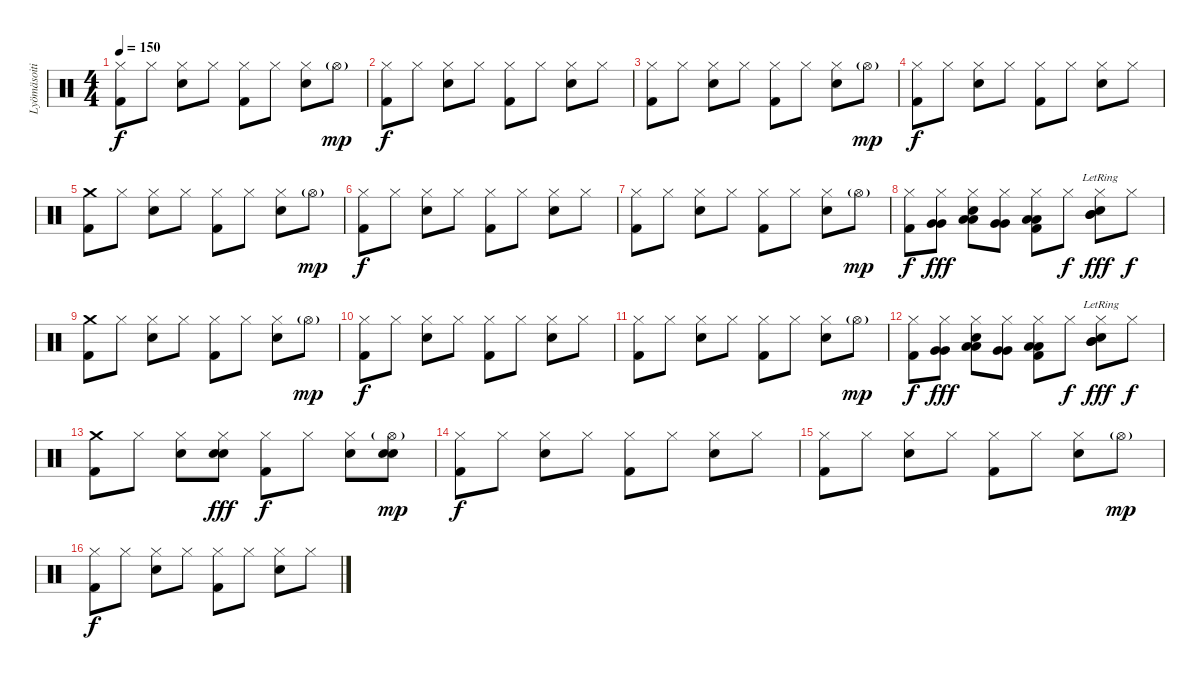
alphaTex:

\track ("Lyömäsoitin" "Lyömäsoiti") {instrument percussion}
\staff {score}
\articulation defaults
\ts (4 4)
\tempo 150
\clef neutral
\ks c
("Kick (hit) 2" "Hi-Hat (closed)").8{dy f} "Hi-Hat (closed)".8 ("Snare (hit) 2" "Hi-Hat (closed)").8 "Hi-Hat (closed)".8 ("Kick (hit) 2" "Hi-Hat (closed)").8 "Hi-Hat (closed)".8 ("Snare (hit) 2" "Hi-Hat (closed)").8 "Hi-Hat (open)"{g}.8{dy mp} |
("Kick (hit) 2" "Hi-Hat (closed)").8{dy f} "Hi-Hat (closed)".8 ("Snare (hit) 2" "Hi-Hat (closed)").8 "Hi-Hat (closed)".8 ("Kick (hit) 2" "Hi-Hat (closed)").8 "Hi-Hat (closed)".8 ("Snare (hit) 2" "Hi-Hat (closed)").8 "Hi-Hat (closed)".8 |
("Kick (hit) 2" "Hi-Hat (closed)").8 "Hi-Hat (closed)".8 ("Snare (hit) 2" "Hi-Hat (closed)").8 "Hi-Hat (closed)".8 ("Kick (hit) 2" "Hi-Hat (closed)").8 "Hi-Hat (closed)".8 ("Snare (hit) 2" "Hi-Hat (closed)").8 "Hi-Hat (open)"{g}.8{dy mp} |
("Kick (hit) 2" "Hi-Hat (closed)").8{dy f} "Hi-Hat (closed)".8 ("Snare (hit) 2" "Hi-Hat (closed)").8 "Hi-Hat (closed)".8 ("Kick (hit) 2" "Hi-Hat (closed)").8 "Hi-Hat (closed)".8 ("Snare (hit) 2" "Hi-Hat (closed)").8 "Hi-Hat (closed)".8 |
("Kick (hit) 2" "Crash medium (hit)").8 "Hi-Hat (closed)".8 ("Snare (hit) 2" "Hi-Hat (closed)").8 "Hi-Hat (closed)".8 ("Kick (hit) 2" "Hi-Hat (closed)").8 "Hi-Hat (closed)".8 ("Snare (hit) 2" "Hi-Hat (closed)").8 "Hi-Hat (open)"{g}.8{dy mp} |
("Kick (hit) 2" "Hi-Hat (closed)").8{dy f} "Hi-Hat (closed)".8 ("Snare (hit) 2" "Hi-Hat (closed)").8 "Hi-Hat (closed)".8 ("Kick (hit) 2" "Hi-Hat (closed)").8 "Hi-Hat (closed)".8 ("Snare (hit) 2" "Hi-Hat (closed)").8 "Hi-Hat (closed)".8 |
("Kick (hit) 2" "Hi-Hat (closed)").8 "Hi-Hat (closed)".8 ("Snare (hit) 2" "Hi-Hat (closed)").8 "Hi-Hat (closed)".8 ("Kick (hit) 2" "Hi-Hat (closed)").8 "Hi-Hat (closed)".8 ("Snare (hit) 2" "Hi-Hat (closed)").8 "Hi-Hat (open)"{g}.8{dy mp} |
("Kick (hit) 2" "Hi-Hat (closed)").8{dy f} ("Very Low Tom (hit)" "Very Low Tom (hit)" "Hi-Hat (closed)").8{dy fff} ("Low Tom (hit)" "Low Tom (hit)" "Snare (hit) 2" "Hi-Hat (closed)").8 ("Very Low Tom (hit)" "Very Low Tom (hit)" "Hi-Hat (closed)").8 ("Kick (hit) 2" "Low Tom (hit)" "Low Tom (hit)" "Hi-Hat (closed)").8 "Hi-Hat (closed)".8{dy f} ("Mid Tom (hit)"{lr} "Mid Tom (hit)"{lr} "Snare (hit) 2" "Hi-Hat (closed)").8{dy fff} "Hi-Hat (closed)".8{dy f} |
("Kick (hit) 2" "Crash medium (hit)").8 "Hi-Hat (closed)".8 ("Snare (hit) 2" "Hi-Hat (closed)").8 "Hi-Hat (closed)".8 ("Kick (hit) 2" "Hi-Hat (closed)").8 "Hi-Hat (closed)".8 ("Snare (hit) 2" "Hi-Hat (closed)").8 "Hi-Hat (open)"{g}.8{dy mp} |
("Kick (hit) 2" "Hi-Hat (closed)").8{dy f} "Hi-Hat (closed)".8 ("Snare (hit) 2" "Hi-Hat (closed)").8 "Hi-Hat (closed)".8 ("Kick (hit) 2" "Hi-Hat (closed)").8 "Hi-Hat (closed)".8 ("Snare (hit) 2" "Hi-Hat (closed)").8 "Hi-Hat (closed)".8 |
("Kick (hit) 2" "Hi-Hat (closed)").8 "Hi-Hat (closed)".8 ("Snare (hit) 2" "Hi-Hat (closed)").8 "Hi-Hat (closed)".8 ("Kick (hit) 2" "Hi-Hat (closed)").8 "Hi-Hat (closed)".8 ("Snare (hit) 2" "Hi-Hat (closed)").8 "Hi-Hat (open)"{g}.8{dy mp} |
("Kick (hit) 2" "Hi-Hat (closed)").8{dy f} ("Very Low Tom (hit)" "Very Low Tom (hit)" "Hi-Hat (closed)").8{dy fff} ("Low Tom (hit)" "Low Tom (hit)" "Snare (hit) 2" "Hi-Hat (closed)").8 ("Very Low Tom (hit)" "Very Low Tom (hit)" "Hi-Hat (closed)").8 ("Kick (hit) 2" "Low Tom (hit)" "Low Tom (hit)" "Hi-Hat (closed)").8 "Hi-Hat (closed)".8{dy f} ("Mid Tom (hit)"{lr} "Mid Tom (hit)"{lr} "Snare (hit) 2" "Hi-Hat (closed)").8{dy fff} "Hi-Hat (closed)".8{dy f} |
("Kick (hit) 2" "Crash medium (hit)").8 "Hi-Hat (closed)".8 ("Snare (hit) 2" "Hi-Hat (closed)").8 ("Electric Snare (hit)" "Hand Clap (hit)" "Hi-Hat (closed)").8{dy fff} ("Kick (hit) 2" "Hi-Hat (closed)").8{dy f} "Hi-Hat (closed)".8 ("Snare (hit) 2" "Hi-Hat (closed)").8 ("Electric Snare (hit)" "Hand Clap (hit)" "Hi-Hat (open)"{g}).8{dy mp} |
("Kick (hit) 2" "Hi-Hat (closed)").8{dy f} "Hi-Hat (closed)".8 ("Snare (hit) 2" "Hi-Hat (closed)").8 "Hi-Hat (closed)".8 ("Kick (hit) 2" "Hi-Hat (closed)").8 "Hi-Hat (closed)".8 ("Snare (hit) 2" "Hi-Hat (closed)").8 "Hi-Hat (closed)".8 |
("Kick (hit) 2" "Hi-Hat (closed)").8 "Hi-Hat (closed)".8 ("Snare (hit) 2" "Hi-Hat (closed)").8 "Hi-Hat (closed)".8 ("Kick (hit) 2" "Hi-Hat (closed)").8 "Hi-Hat (closed)".8 ("Snare (hit) 2" "Hi-Hat (closed)").8 "Hi-Hat (open)"{g}.8{dy mp} |
("Kick (hit) 2" "Hi-Hat (closed)").8{dy f} "Hi-Hat (closed)".8 ("Snare (hit) 2" "Hi-Hat (closed)").8 "Hi-Hat (closed)".8 ("Kick (hit) 2" "Hi-Hat (closed)").8 "Hi-Hat (closed)".8 ("Snare (hit) 2" "Hi-Hat (closed)").8 "Hi-Hat (closed)".8
